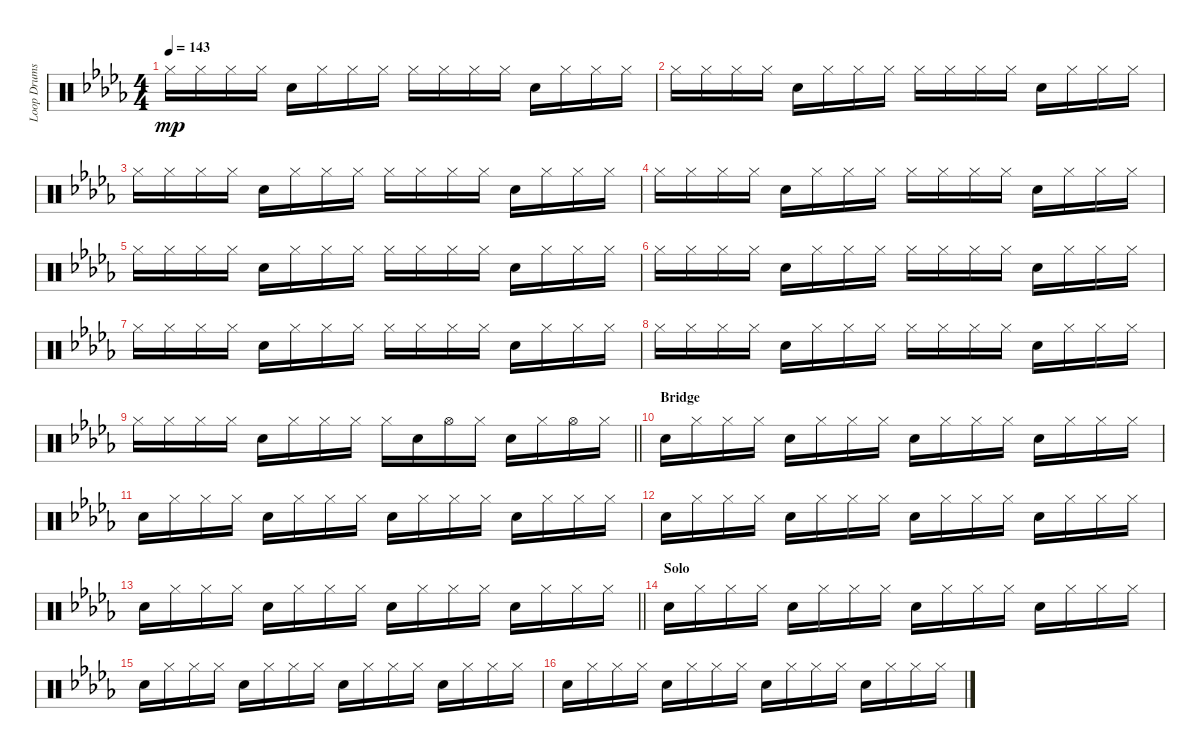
\track ("Loop Drums" "Loop Drums") {instrument percussion}
\staff {score}
\articulation defaults
\ts (4 4)
\tempo 143
\clef neutral
\ks db "Hi-Hat (closed)".16{dy mp} "Hi-Hat (closed)".16 "Hi-Hat (closed)".16 "Hi-Hat (closed)".16 "Electric Snare (hit)".16 "Hi-Hat (closed)".16 "Hi-Hat (closed)".16 "Hi-Hat (closed)".16 "Hi-Hat (closed)".16 "Hi-Hat (closed)".16 "Hi-Hat (closed)".16 "Hi-Hat (closed)".16 "Electric Snare (hit)".16 "Hi-Hat (closed)".16 "Hi-Hat (closed)".16 "Hi-Hat (closed)".16
|
"Hi-Hat (closed)".16 "Hi-Hat (closed)".16 "Hi-Hat (closed)".16 "Hi-Hat (closed)".16 "Electric Snare (hit)".16 "Hi-Hat (closed)".16 "Hi-Hat (closed)".16 "Hi-Hat (closed)".16 "Hi-Hat (closed)".16 "Hi-Hat (closed)".16 "Hi-Hat (closed)".16 "Hi-Hat (closed)".16 "Electric Snare (hit)".16 "Hi-Hat (closed)".16 "Hi-Hat (closed)".16 "Hi-Hat (closed)".16 |
"Hi-Hat (closed)".16 "Hi-Hat (closed)".16 "Hi-Hat (closed)".16 "Hi-Hat (closed)".16 "Electric Snare (hit)".16 "Hi-Hat (closed)".16 "Hi-Hat (closed)".16 "Hi-Hat (closed)".16 "Hi-Hat (closed)".16 "Hi-Hat (closed)".16 "Hi-Hat (closed)".16 "Hi-Hat (closed)".16 "Electric Snare (hit)".16 "Hi-Hat (closed)".16 "Hi-Hat (closed)".16 "Hi-Hat (closed)".16 |
"Hi-Hat (closed)".16 "Hi-Hat (closed)".16 "Hi-Hat (closed)".16 "Hi-Hat (closed)".16 "Electric Snare (hit)".16 "Hi-Hat (closed)".16 "Hi-Hat (closed)".16 "Hi-Hat (closed)".16 "Hi-Hat (closed)".16 "Hi-Hat (closed)".16 "Hi-Hat (closed)".16 "Hi-Hat (closed)".16 "Electric Snare (hit)".16 "Hi-Hat (closed)".16 "Hi-Hat (closed)".16 "Hi-Hat (closed)".16 |
"Hi-Hat (closed)".16 "Hi-Hat (closed)".16 "Hi-Hat (closed)".16 "Hi-Hat (closed)".16 "Electric Snare (hit)".16 "Hi-Hat (closed)".16 "Hi-Hat (closed)".16 "Hi-Hat (closed)".16 "Hi-Hat (closed)".16 "Hi-Hat (closed)".16 "Hi-Hat (closed)".16 "Hi-Hat (closed)".16 "Electric Snare (hit)".16 "Hi-Hat (closed)".16 "Hi-Hat (closed)".16 "Hi-Hat (closed)".16 |
"Hi-Hat (closed)".16 "Hi-Hat (closed)".16 "Hi-Hat (closed)".16 "Hi-Hat (closed)".16 "Electric Snare (hit)".16 "Hi-Hat (closed)".16 "Hi-Hat (closed)".16 "Hi-Hat (closed)".16 "Hi-Hat (closed)".16 "Hi-Hat (closed)".16 "Hi-Hat (closed)".16 "Hi-Hat (closed)".16 "Electric Snare (hit)".16 "Hi-Hat (closed)".16 "Hi-Hat (closed)".16 "Hi-Hat (closed)".16 |
"Hi-Hat (closed)".16 "Hi-Hat (closed)".16 "Hi-Hat (closed)".16 "Hi-Hat (closed)".16 "Electric Snare (hit)".16 "Hi-Hat (closed)".16 "Hi-Hat (closed)".16 "Hi-Hat (closed)".16 "Hi-Hat (closed)".16 "Hi-Hat (closed)".16 "Hi-Hat (closed)".16 "Hi-Hat (closed)".16 "Electric Snare (hit)".16 "Hi-Hat (closed)".16 "Hi-Hat (closed)".16 "Hi-Hat (closed)".16 |
"Hi-Hat (closed)".16 "Hi-Hat (closed)".16 "Hi-Hat (closed)".16 "Hi-Hat (closed)".16 "Electric Snare (hit)".16 "Hi-Hat (closed)".16 "Hi-Hat (closed)".16 "Hi-Hat (closed)".16 "Hi-Hat (closed)".16 "Hi-Hat (closed)".16 "Hi-Hat (closed)".16 "Hi-Hat (closed)".16 "Electric Snare (hit)".16 "Hi-Hat (closed)".16 "Hi-Hat (closed)".16 "Hi-Hat (closed)".16 |
\barLineRight lightlight "Hi-Hat (closed)".16 "Hi-Hat (closed)".16 "Hi-Hat (closed)".16 "Hi-Hat (closed)".16 "Electric Snare (hit)".16 "Hi-Hat (closed)".16 "Hi-Hat (closed)".16 "Hi-Hat (closed)".16 "Hi-Hat (closed)".16 "Electric Snare (hit)".16 "Hi-Hat (open)".16 "Hi-Hat (closed)".16 "Electric Snare (hit)".16 "Hi-Hat (closed)".16 "Hi-Hat (open)".16 "Hi-Hat (closed)".16
|
\section ("" "Bridge")
"Electric Snare (hit)".16 "Hi-Hat (closed)".16 "Hi-Hat (closed)".16 "Hi-Hat (closed)".16 "Electric Snare (hit)".16 "Hi-Hat (closed)".16 "Hi-Hat (closed)".16 "Hi-Hat (closed)".16 "Electric Snare (hit)".16 "Hi-Hat (closed)".16 "Hi-Hat (closed)".16 "Hi-Hat (closed)".16 "Electric Snare (hit)".16 "Hi-Hat (closed)".16 "Hi-Hat (closed)".16 "Hi-Hat (closed)".16 |
"Electric Snare (hit)".16 "Hi-Hat (closed)".16 "Hi-Hat (closed)".16 "Hi-Hat (closed)".16 "Electric Snare (hit)".16 "Hi-Hat (closed)".16 "Hi-Hat (closed)".16 "Hi-Hat (closed)".16 "Electric Snare (hit)".16 "Hi-Hat (closed)".16 "Hi-Hat (closed)".16 "Hi-Hat (closed)".16 "Electric Snare (hit)".16 "Hi-Hat (closed)".16 "Hi-Hat (closed)".16 "Hi-Hat (closed)".16 |
"Electric Snare (hit)".16 "Hi-Hat (closed)".16 "Hi-Hat (closed)".16 "Hi-Hat (closed)".16 "Electric Snare (hit)".16 "Hi-Hat (closed)".16 "Hi-Hat (closed)".16 "Hi-Hat (closed)".16 "Electric Snare (hit)".16 "Hi-Hat (closed)".16 "Hi-Hat (closed)".16 "Hi-Hat (closed)".16 "Electric Snare (hit)".16 "Hi-Hat (closed)".16 "Hi-Hat (closed)".16 "Hi-Hat (closed)".16 |
\barLineRight lightlight "Electric Snare (hit)".16 "Hi-Hat (closed)".16 "Hi-Hat (closed)".16 "Hi-Hat (closed)".16 "Electric Snare (hit)".16 "Hi-Hat (closed)".16 "Hi-Hat (closed)".16 "Hi-Hat (closed)".16 "Electric Snare (hit)".16 "Hi-Hat (closed)".16 "Hi-Hat (closed)".16 "Hi-Hat (closed)".16 "Electric Snare (hit)".16 "Hi-Hat (closed)".16 "Hi-Hat (closed)".16 "Hi-Hat (closed)".16
|
\section ("" "Solo")
"Electric Snare (hit)".16 "Hi-Hat (closed)".16 "Hi-Hat (closed)".16 "Hi-Hat (closed)".16 "Electric Snare (hit)".16 "Hi-Hat (closed)".16 "Hi-Hat (closed)".16 "Hi-Hat (closed)".16 "Electric Snare (hit)".16 "Hi-Hat (closed)".16 "Hi-Hat (closed)".16 "Hi-Hat (closed)".16 "Electric Snare (hit)".16 "Hi-Hat (closed)".16 "Hi-Hat (closed)".16 "Hi-Hat (closed)".16 |
"Electric Snare (hit)".16 "Hi-Hat (closed)".16 "Hi-Hat (closed)".16 "Hi-Hat (closed)".16 "Electric Snare (hit)".16 "Hi-Hat (closed)".16 "Hi-Hat (closed)".16 "Hi-Hat (closed)".16 "Electric Snare (hit)".16 "Hi-Hat (closed)".16 "Hi-Hat (closed)".16 "Hi-Hat (closed)".16 "Electric Snare (hit)".16 "Hi-Hat (closed)".16 "Hi-Hat (closed)".16 "Hi-Hat (closed)".16 |
"Electric Snare (hit)".16 "Hi-Hat (closed)".16 "Hi-Hat (closed)".16 "Hi-Hat (closed)".16 "Electric Snare (hit)".16 "Hi-Hat (closed)".16 "Hi-Hat (closed)".16 "Hi-Hat (closed)".16 "Electric Snare (hit)".16 "Hi-Hat (closed)".16 "Hi-Hat (closed)".16 "Hi-Hat (closed)".16 "Electric Snare (hit)".16 "Hi-Hat (closed)".16 "Hi-Hat (closed)".16 "Hi-Hat (closed)".16
